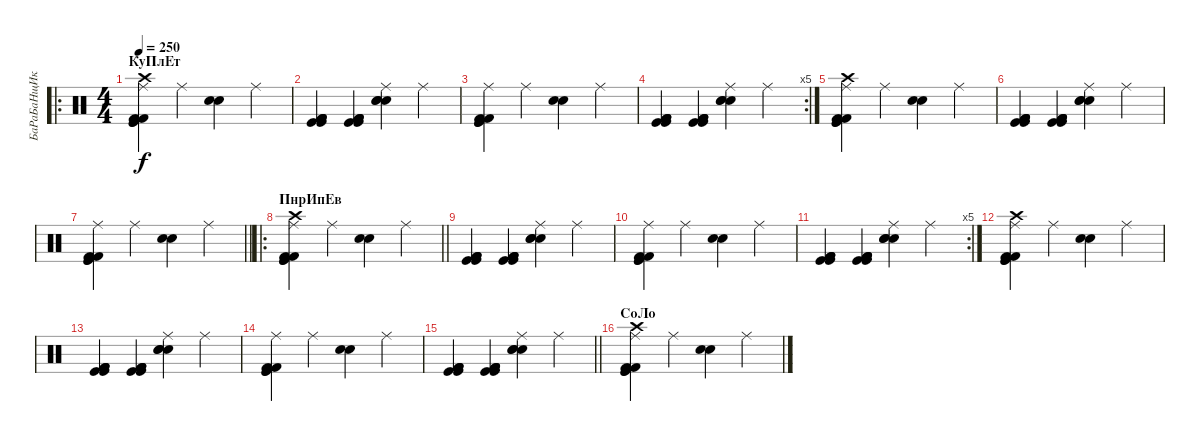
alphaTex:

\track ("БаРаБаНщИк" "БаРаБаНщИк") {instrument percussion}
\staff {score}
\articulation defaults
\ro
\ts (4 4)
\section ("" "КуПлЕт")
\tempo 250
\clef neutral
\ks c
("Ride (middle)" "Kick (hit)" "Kick (hit)" "Kick (hit) 2" "Kick (hit) 2" "Crash high (hit)").4{dy f} "Ride (middle)".4 ("Electric Snare (hit)" "Snare (hit) 2").4 "Ride (middle)".4 |
("Kick (hit) 2" "Kick (hit)" "Kick (hit)" "Kick (hit) 2" "Kick (hit) 2").4 ("Kick (hit) 2" "Kick (hit) 2" "Kick (hit)" "Kick (hit)" "Kick (hit) 2").4 ("Ride (middle)" "Snare (hit) 2" "Snare (hit) 2" "Electric Snare (hit)").4 "Ride (middle)".4 |
("Ride (middle)" "Kick (hit)" "Kick (hit)" "Kick (hit) 2" "Kick (hit) 2").4 "Ride (middle)".4 ("Electric Snare (hit)" "Snare (hit) 2").4 "Ride (middle)".4 |
\rc 5
("Kick (hit) 2" "Kick (hit)" "Kick (hit)" "Kick (hit) 2" "Kick (hit) 2").4 ("Kick (hit) 2" "Kick (hit) 2" "Kick (hit)" "Kick (hit)" "Kick (hit) 2").4 ("Ride (middle)" "Snare (hit) 2" "Snare (hit) 2" "Electric Snare (hit)").4 "Ride (middle)".4 |
("Ride (middle)" "Kick (hit)" "Kick (hit)" "Kick (hit) 2" "Kick (hit) 2" "Crash high (hit)").4 "Ride (middle)".4 ("Electric Snare (hit)" "Snare (hit) 2").4 "Ride (middle)".4 |
("Kick (hit) 2" "Kick (hit)" "Kick (hit)" "Kick (hit) 2" "Kick (hit) 2").4 ("Kick (hit) 2" "Kick (hit) 2" "Kick (hit)" "Kick (hit)" "Kick (hit) 2").4 ("Ride (middle)" "Snare (hit) 2" "Snare (hit) 2" "Electric Snare (hit)").4 "Ride (middle)".4 |
\barLineRight lightlight
("Ride (middle)" "Kick (hit)" "Kick (hit)" "Kick (hit) 2" "Kick (hit) 2").4 "Ride (middle)".4 ("Electric Snare (hit)" "Snare (hit) 2").4 "Ride (middle)".4 |
\ro
\section ("" "ПнрИпЕв")
\barLineRight lightlight
("Ride (middle)" "Kick (hit)" "Kick (hit)" "Kick (hit) 2" "Kick (hit) 2" "Crash high (hit)").4 "Ride (middle)".4 ("Electric Snare (hit)" "Snare (hit) 2").4 "Ride (middle)".4 |
\section ("" "")
("Kick (hit) 2" "Kick (hit)" "Kick (hit)" "Kick (hit) 2" "Kick (hit) 2").4 ("Kick (hit) 2" "Kick (hit) 2" "Kick (hit)" "Kick (hit)" "Kick (hit) 2").4 ("Ride (middle)" "Snare (hit) 2" "Snare (hit) 2" "Electric Snare (hit)").4 "Ride (middle)".4 |
("Ride (middle)" "Kick (hit)" "Kick (hit)" "Kick (hit) 2" "Kick (hit) 2").4 "Ride (middle)".4 ("Electric Snare (hit)" "Snare (hit) 2").4 "Ride (middle)".4 |
\rc 5
("Kick (hit) 2" "Kick (hit)" "Kick (hit)" "Kick (hit) 2" "Kick (hit) 2").4 ("Kick (hit) 2" "Kick (hit) 2" "Kick (hit)" "Kick (hit)" "Kick (hit) 2").4 ("Ride (middle)" "Snare (hit) 2" "Snare (hit) 2" "Electric Snare (hit)").4 "Ride (middle)".4 |
("Ride (middle)" "Kick (hit)" "Kick (hit)" "Kick (hit) 2" "Kick (hit) 2" "Crash high (hit)").4 "Ride (middle)".4 ("Electric Snare (hit)" "Snare (hit) 2").4 "Ride (middle)".4 |
("Kick (hit) 2" "Kick (hit)" "Kick (hit)" "Kick (hit) 2" "Kick (hit) 2").4 ("Kick (hit) 2" "Kick (hit) 2" "Kick (hit)" "Kick (hit)" "Kick (hit) 2").4 ("Ride (middle)" "Snare (hit) 2" "Snare (hit) 2" "Electric Snare (hit)").4 "Ride (middle)".4 |
("Ride (middle)" "Kick (hit)" "Kick (hit)" "Kick (hit) 2" "Kick (hit) 2").4 "Ride (middle)".4 ("Electric Snare (hit)" "Snare (hit) 2").4 "Ride (middle)".4 |
\barLineRight lightlight
("Kick (hit) 2" "Kick (hit)" "Kick (hit)" "Kick (hit) 2" "Kick (hit) 2").4 ("Kick (hit) 2" "Kick (hit) 2" "Kick (hit)" "Kick (hit)" "Kick (hit) 2").4 ("Ride (middle)" "Snare (hit) 2" "Snare (hit) 2" "Electric Snare (hit)").4 "Ride (middle)".4 |
\section ("" "СоЛо")
("Ride (middle)" "Kick (hit)" "Kick (hit)" "Kick (hit) 2" "Kick (hit) 2" "Crash high (hit)").4 "Ride (middle)".4 ("Electric Snare (hit)" "Snare (hit) 2").4 "Ride (middle)".4
